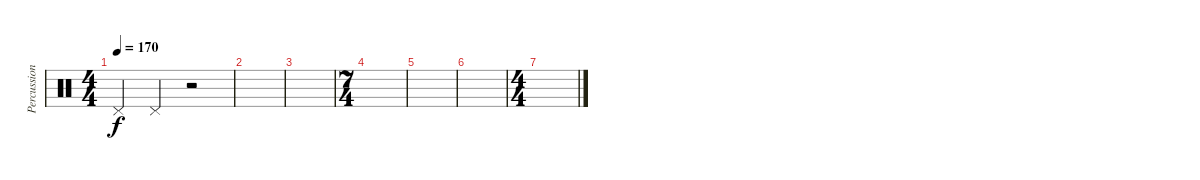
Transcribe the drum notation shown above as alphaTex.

\track ("Percussioni" "Percussion") {instrument percussion}
\staff {score}
\articulation defaults
\ts (4 4)
\tempo 170
\clef neutral
\ks c "Pedal Hi-Hat (hit)".4{dy f} "Pedal Hi-Hat (hit)".4
r.2 |
|
|
\ts (7 4)
|
|
|
\ts (4 4)
